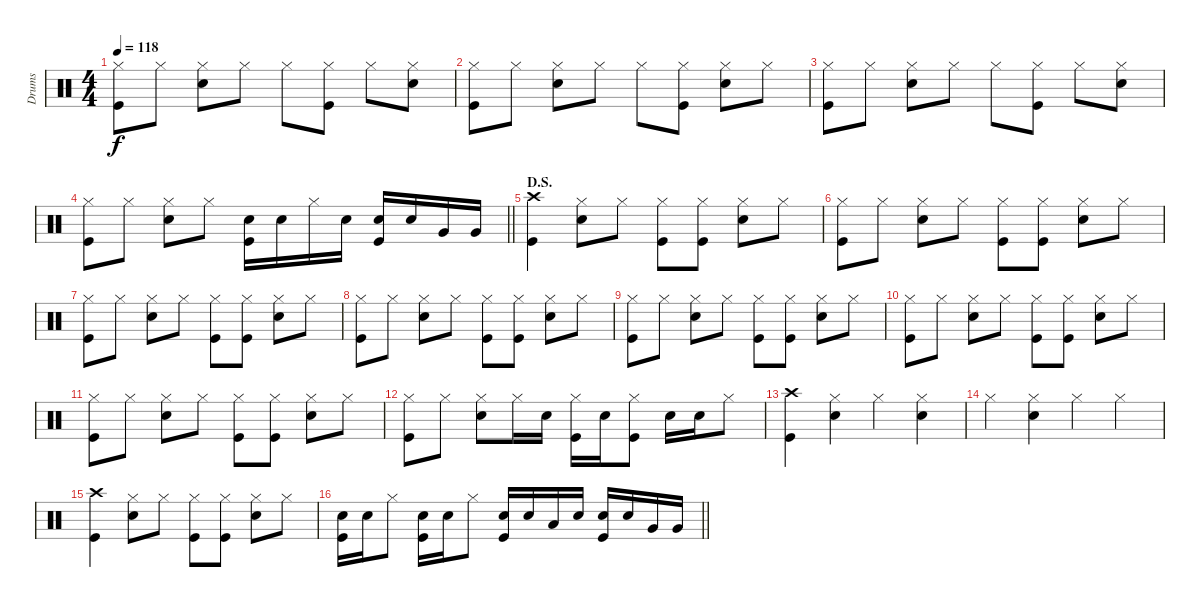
\track ("Drums" "Drums") {instrument percussion}
\staff {score}
\articulation defaults
\ts (4 4)
\tempo 118
\clef neutral
\ks c
("Hi-Hat (closed)" "Kick (hit)").8{dy f} "Hi-Hat (closed)".8 ("Hi-Hat (closed)" "Electric Snare (hit)").8 "Hi-Hat (closed)".8 "Hi-Hat (closed)".8 ("Hi-Hat (closed)" "Kick (hit)").8 "Hi-Hat (closed)".8 ("Hi-Hat (closed)" "Electric Snare (hit)").8 |
("Hi-Hat (closed)" "Kick (hit)").8 "Hi-Hat (closed)".8 ("Hi-Hat (closed)" "Electric Snare (hit)").8 "Hi-Hat (closed)".8 "Hi-Hat (closed)".8 ("Hi-Hat (closed)" "Kick (hit)").8 ("Hi-Hat (closed)" "Electric Snare (hit)").8 "Hi-Hat (closed)".8 |
("Hi-Hat (closed)" "Kick (hit)").8 "Hi-Hat (closed)".8 ("Hi-Hat (closed)" "Electric Snare (hit)").8 "Hi-Hat (closed)".8 "Hi-Hat (closed)".8 ("Hi-Hat (closed)" "Kick (hit)").8 "Hi-Hat (closed)".8 ("Hi-Hat (closed)" "Electric Snare (hit)").8 |
\barLineRight lightlight
("Hi-Hat (closed)" "Kick (hit)").8 "Hi-Hat (closed)".8 ("Hi-Hat (closed)" "Electric Snare (hit)").8 "Hi-Hat (closed)".8 ("Electric Snare (hit)" "Kick (hit)").16 "Electric Snare (hit)".16 "Hi-Hat (closed)".16 "Electric Snare (hit)".16 ("Electric Snare (hit)" "Kick (hit)").16 "Electric Snare (hit)".16 "Very Low Tom (hit)".16 "Very Low Tom (hit)".16 |
\section ("" "D.S.")
("Crash high (hit)" "Kick (hit)").4 ("Hi-Hat (closed)" "Electric Snare (hit)").8 "Hi-Hat (closed)".8 ("Hi-Hat (closed)" "Kick (hit)").8 ("Hi-Hat (closed)" "Kick (hit)").8 ("Hi-Hat (closed)" "Electric Snare (hit)").8 "Hi-Hat (closed)".8 |
("Hi-Hat (closed)" "Kick (hit)").8 "Hi-Hat (closed)".8 ("Hi-Hat (closed)" "Electric Snare (hit)").8 "Hi-Hat (closed)".8 ("Hi-Hat (closed)" "Kick (hit)").8 ("Hi-Hat (closed)" "Kick (hit)").8 ("Hi-Hat (closed)" "Electric Snare (hit)").8 "Hi-Hat (closed)".8 |
("Hi-Hat (closed)" "Kick (hit)").8 "Hi-Hat (closed)".8 ("Hi-Hat (closed)" "Electric Snare (hit)").8 "Hi-Hat (closed)".8 ("Hi-Hat (closed)" "Kick (hit)").8 ("Hi-Hat (closed)" "Kick (hit)").8 ("Hi-Hat (closed)" "Electric Snare (hit)").8 "Hi-Hat (closed)".8 |
("Hi-Hat (closed)" "Kick (hit)").8 "Hi-Hat (closed)".8 ("Hi-Hat (closed)" "Electric Snare (hit)").8 "Hi-Hat (closed)".8 ("Hi-Hat (closed)" "Kick (hit)").8 ("Hi-Hat (closed)" "Kick (hit)").8 ("Hi-Hat (closed)" "Electric Snare (hit)").8 "Hi-Hat (closed)".8 |
("Hi-Hat (closed)" "Kick (hit)").8 "Hi-Hat (closed)".8 ("Hi-Hat (closed)" "Electric Snare (hit)").8 "Hi-Hat (closed)".8 ("Hi-Hat (closed)" "Kick (hit)").8 ("Hi-Hat (closed)" "Kick (hit)").8 ("Hi-Hat (closed)" "Electric Snare (hit)").8 "Hi-Hat (closed)".8 |
("Hi-Hat (closed)" "Kick (hit)").8 "Hi-Hat (closed)".8 ("Hi-Hat (closed)" "Electric Snare (hit)").8 "Hi-Hat (closed)".8 ("Hi-Hat (closed)" "Kick (hit)").8 ("Hi-Hat (closed)" "Kick (hit)").8 ("Hi-Hat (closed)" "Electric Snare (hit)").8 "Hi-Hat (closed)".8 |
("Hi-Hat (closed)" "Kick (hit)").8 "Hi-Hat (closed)".8 ("Hi-Hat (closed)" "Electric Snare (hit)").8 "Hi-Hat (closed)".8 ("Hi-Hat (closed)" "Kick (hit)").8 ("Hi-Hat (closed)" "Kick (hit)").8 ("Hi-Hat (closed)" "Electric Snare (hit)").8 "Hi-Hat (closed)".8 |
("Hi-Hat (closed)" "Kick (hit)").8 "Hi-Hat (closed)".8 ("Hi-Hat (closed)" "Electric Snare (hit)").8 "Hi-Hat (closed)".16 "Electric Snare (hit)".16 ("Hi-Hat (closed)" "Kick (hit)").16 "Electric Snare (hit)".16 ("Hi-Hat (closed)" "Kick (hit)").8 "Electric Snare (hit)".16 "Electric Snare (hit)".16 "Hi-Hat (closed)".8 |
("Crash high (hit)" "Kick (hit)").4 ("Hi-Hat (closed)" "Electric Snare (hit)").4 "Hi-Hat (closed)".4 ("Hi-Hat (closed)" "Electric Snare (hit)").4 |
"Hi-Hat (closed)".4 ("Hi-Hat (closed)" "Electric Snare (hit)").4 "Hi-Hat (closed)".4 "Hi-Hat (closed)".4 |
("Crash high (hit)" "Kick (hit)").4 ("Hi-Hat (closed)" "Electric Snare (hit)").8 "Hi-Hat (closed)".8 ("Hi-Hat (closed)" "Kick (hit)").8 ("Hi-Hat (closed)" "Kick (hit)").8 ("Hi-Hat (closed)" "Electric Snare (hit)").8 "Hi-Hat (closed)".8 |
\barLineRight lightlight
("Electric Snare (hit)" "Kick (hit)").16 "Electric Snare (hit)".16 "Hi-Hat (closed)".8 ("Electric Snare (hit)" "Kick (hit)").16 "Electric Snare (hit)".16 "Hi-Hat (closed)".8 ("Electric Snare (hit)" "Kick (hit)").16 "Electric Snare (hit)".16 "Low Tom (hit)".16 "Electric Snare (hit)".16 ("Electric Snare (hit)" "Kick (hit)").16 "Electric Snare (hit)".16 "Very Low Tom (hit)".16 "Very Low Tom (hit)".16
